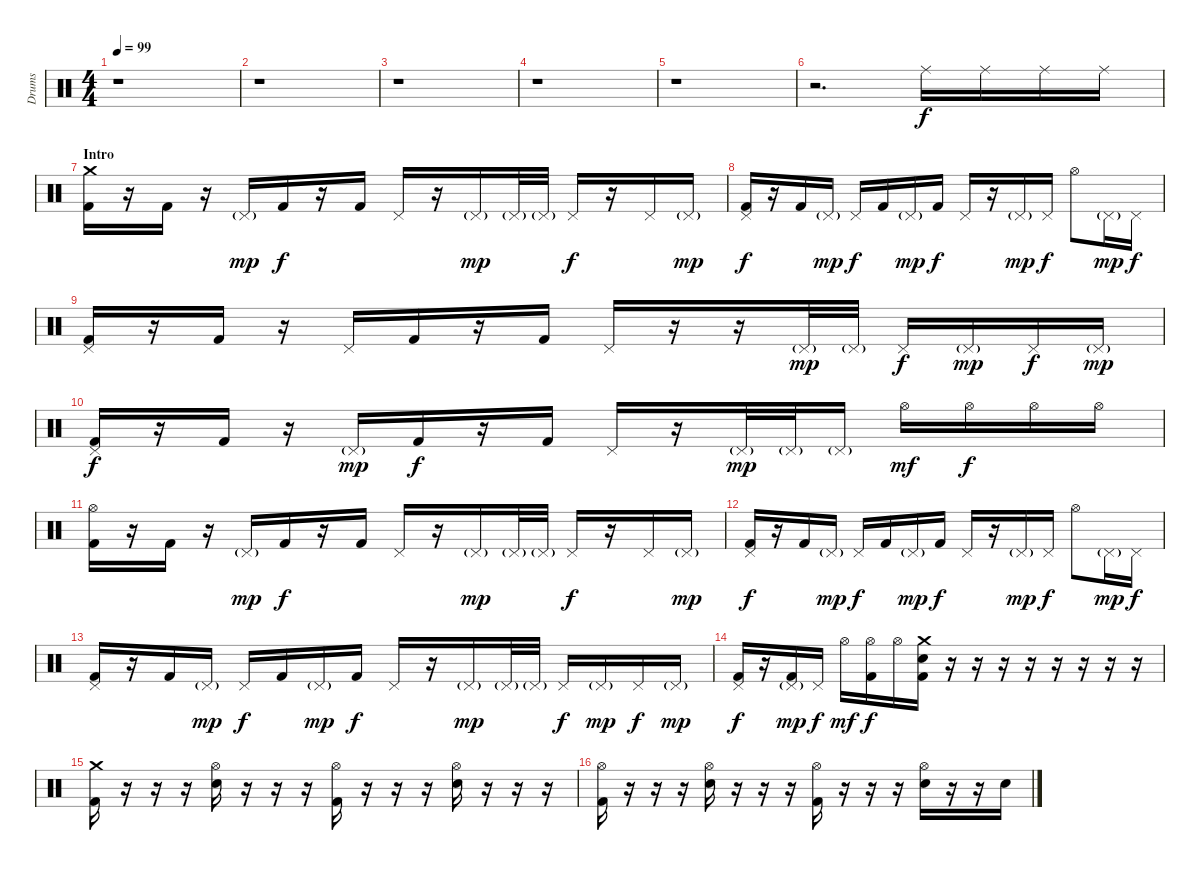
\track ("Drums" "Drums") {instrument percussion}
\staff {score}
\articulation defaults
\ts (4 4)
\tempo 99
\clef neutral
\ks c
r.1{dy f} |
r.1 |
r.1 |
r.1 |
r.1 |
r.2{d} "Ride (middle)".16 "Ride (middle)".16 "Ride (middle)".16 "Ride (middle)".16 |
\section ("" "Intro")
("Crash medium (hit)" "Kick (hit) 2").16 r.16 "Kick (hit) 2".16 r.16 "Pedal Hi-Hat (hit)"{g}.16{dy mp} "Kick (hit) 2".16{dy f} r.16 "Kick (hit) 2".16 "Pedal Hi-Hat (hit)".16 r.16 "Pedal Hi-Hat (hit)"{g}.16{dy mp} "Pedal Hi-Hat (hit)"{g}.32 "Pedal Hi-Hat (hit)"{g}.32 "Pedal Hi-Hat (hit)".16{dy f} r.16 "Pedal Hi-Hat (hit)".16 "Pedal Hi-Hat (hit)"{g}.16{dy mp} |
("Pedal Hi-Hat (hit)" "Kick (hit) 2").16{dy f} r.16 "Kick (hit) 2".16 "Pedal Hi-Hat (hit)"{g}.16{dy mp} "Pedal Hi-Hat (hit)".16{dy f} "Kick (hit) 2".16 "Pedal Hi-Hat (hit)"{g}.16{dy mp} "Kick (hit) 2".16{dy f} "Pedal Hi-Hat (hit)".16 r.16 "Pedal Hi-Hat (hit)"{g}.16{dy mp} "Pedal Hi-Hat (hit)".16{dy f} "Hi-Hat (open)".8 "Pedal Hi-Hat (hit)"{g}.16{dy mp} "Pedal Hi-Hat (hit)".16{dy f} |
("Pedal Hi-Hat (hit)" "Kick (hit) 2").16 r.16 "Kick (hit) 2".16 r.16 "Pedal Hi-Hat (hit)".16 "Kick (hit) 2".16 r.16 "Kick (hit) 2".16 "Pedal Hi-Hat (hit)".16 r.16 r.16 "Pedal Hi-Hat (hit)"{g}.32{dy mp} "Pedal Hi-Hat (hit)"{g}.32 "Pedal Hi-Hat (hit)".16{dy f} "Pedal Hi-Hat (hit)"{g}.16{dy mp} "Pedal Hi-Hat (hit)".16{dy f} "Pedal Hi-Hat (hit)"{g}.16{dy mp} |
("Pedal Hi-Hat (hit)" "Kick (hit) 2").16{dy f} r.16 "Kick (hit) 2".16 r.16 "Pedal Hi-Hat (hit)"{g}.16{dy mp} "Kick (hit) 2".16{dy f} r.16 "Kick (hit) 2".16 "Pedal Hi-Hat (hit)".16 r.16 "Pedal Hi-Hat (hit)"{g}.32{dy mp} "Pedal Hi-Hat (hit)"{g}.32 "Pedal Hi-Hat (hit)"{g}.16 "Hi-Hat (open)".16{dy mf} "Hi-Hat (open)".16{dy f} "Hi-Hat (open)".16 "Hi-Hat (open)".16 |
("Hi-Hat (open)" "Kick (hit) 2").16 r.16 "Kick (hit) 2".16 r.16 "Pedal Hi-Hat (hit)"{g}.16{dy mp} "Kick (hit) 2".16{dy f} r.16 "Kick (hit) 2".16 "Pedal Hi-Hat (hit)".16 r.16 "Pedal Hi-Hat (hit)"{g}.16{dy mp} "Pedal Hi-Hat (hit)"{g}.32 "Pedal Hi-Hat (hit)"{g}.32 "Pedal Hi-Hat (hit)".16{dy f} r.16 "Pedal Hi-Hat (hit)".16 "Pedal Hi-Hat (hit)"{g}.16{dy mp} |
("Pedal Hi-Hat (hit)" "Kick (hit) 2").16{dy f} r.16 "Kick (hit) 2".16 "Pedal Hi-Hat (hit)"{g}.16{dy mp} "Pedal Hi-Hat (hit)".16{dy f} "Kick (hit) 2".16 "Pedal Hi-Hat (hit)"{g}.16{dy mp} "Kick (hit) 2".16{dy f} "Pedal Hi-Hat (hit)".16 r.16 "Pedal Hi-Hat (hit)"{g}.16{dy mp} "Pedal Hi-Hat (hit)".16{dy f} "Hi-Hat (open)".8 "Pedal Hi-Hat (hit)"{g}.16{dy mp} "Pedal Hi-Hat (hit)".16{dy f} |
("Pedal Hi-Hat (hit)" "Kick (hit) 2").16 r.16 "Kick (hit) 2".16 "Pedal Hi-Hat (hit)"{g}.16{dy mp} "Pedal Hi-Hat (hit)".16{dy f} "Kick (hit) 2".16 "Pedal Hi-Hat (hit)"{g}.16{dy mp} "Kick (hit) 2".16{dy f} "Pedal Hi-Hat (hit)".16 r.16 "Pedal Hi-Hat (hit)"{g}.16{dy mp} "Pedal Hi-Hat (hit)"{g}.32 "Pedal Hi-Hat (hit)"{g}.32 "Pedal Hi-Hat (hit)".16{dy f} "Pedal Hi-Hat (hit)"{g}.16{dy mp} "Pedal Hi-Hat (hit)".16{dy f} "Pedal Hi-Hat (hit)"{g}.16{dy mp} |
("Pedal Hi-Hat (hit)" "Kick (hit) 2").16{dy f} r.16 ("Pedal Hi-Hat (hit)"{g} "Kick (hit) 2").16{dy mp} "Pedal Hi-Hat (hit)".16{dy f} "Hi-Hat (open)".16{dy mf} ("Hi-Hat (open)" "Kick (hit) 2").16{dy f} "Hi-Hat (open)".16 ("Crash medium (hit)" "Electric Snare (hit)" "Kick (hit) 2").16 r.16{volume 0} r.16 r.16 r.16 r.16 r.16 r.16 r.16 |
\section ("" "")
("Crash medium (hit)" "Kick (hit) 2").16{volume 16} r.16 r.16 r.16 ("Hi-Hat (open)" "Electric Snare (hit)").16 r.16 r.16 r.16 ("Hi-Hat (open)" "Kick (hit) 2").16 r.16 r.16 r.16 ("Hi-Hat (open)" "Electric Snare (hit)").16 r.16 r.16 r.16 |
("Hi-Hat (open)" "Kick (hit) 2").16 r.16 r.16 r.16 ("Hi-Hat (open)" "Electric Snare (hit)").16 r.16 r.16 r.16 ("Hi-Hat (open)" "Kick (hit) 2").16 r.16 r.16 r.16 ("Hi-Hat (open)" "Electric Snare (hit)").16 r.16 r.16 "Electric Snare (hit)".16
